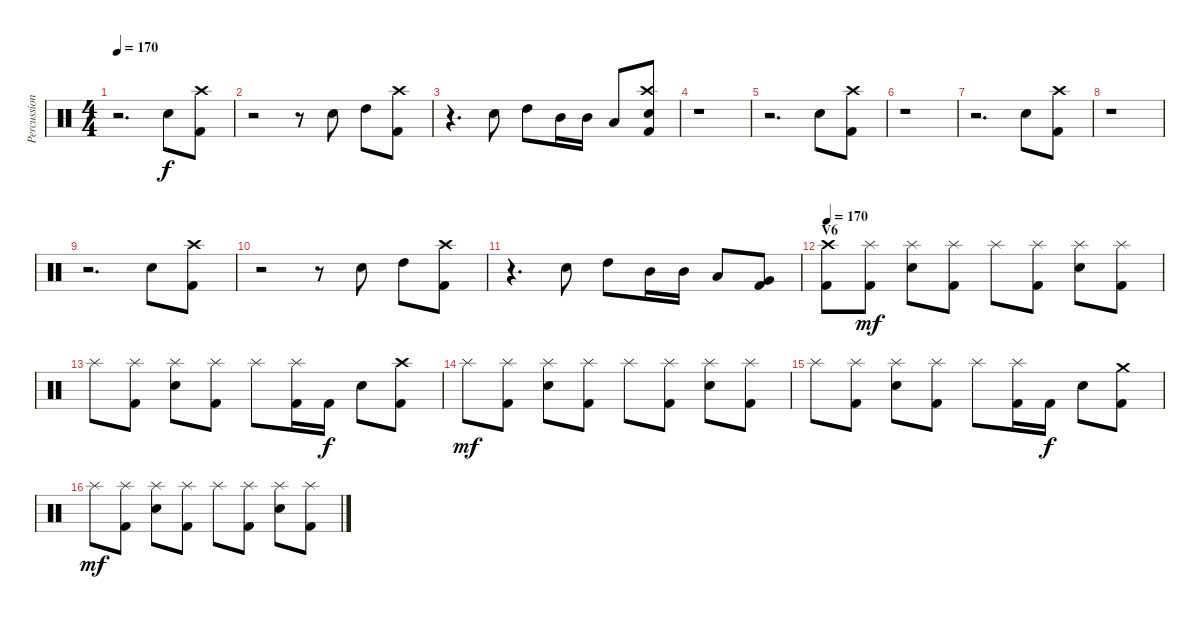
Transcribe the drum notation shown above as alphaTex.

\track ("Percussion" "Percussion") {instrument percussion}
\staff {score}
\articulation defaults
\ts (4 4)
\tempo 170
\clef neutral
\ks c
r.2{d dy f} "Electric Snare (hit)".8 ("Crash high (hit)" "Kick (hit) 2").8 |
r.2 r.8 "Electric Snare (hit)".8 "High Tom (hit)".8 ("Crash high (hit)" "Kick (hit) 2").8 |
r.4{d} "Electric Snare (hit)".8 "High Tom (hit)".8 "Mid Tom (hit)".16 "Mid Tom (hit)".16 "Low Tom (hit)".8 ("Crash high (hit)" "Electric Snare (hit)" "Kick (hit) 2").8 |
\section ("" "")
r.1 |
r.2{d} "Electric Snare (hit)".8 ("Crash high (hit)" "Kick (hit) 2").8 |
r.1 |
r.2{d} "Electric Snare (hit)".8 ("Crash high (hit)" "Kick (hit) 2").8 |
r.1 |
r.2{d} "Electric Snare (hit)".8 ("Crash high (hit)" "Kick (hit) 2").8 |
r.2 r.8 "Electric Snare (hit)".8 "High Tom (hit)".8 ("Crash high (hit)" "Kick (hit) 2").8 |
r.4{d} "Electric Snare (hit)".8 "High Tom (hit)".8 "Mid Tom (hit)".16 "Mid Tom (hit)".16 "Low Tom (hit)".8 ("Very Low Tom (hit)" "Kick (hit) 2").8 |
\section ("" "V6")
\tempo 170
("Crash high (hit)" "Kick (hit) 2").8 ("Splash (hit)" "Kick (hit) 2").8{dy mf} ("Splash (hit)" "Electric Snare (hit)").8 ("Splash (hit)" "Kick (hit) 2").8 "Splash (hit)".8 ("Splash (hit)" "Kick (hit) 2").8 ("Splash (hit)" "Electric Snare (hit)").8 ("Splash (hit)" "Kick (hit) 2").8 |
"Splash (hit)".8 ("Splash (hit)" "Kick (hit) 2").8 ("Splash (hit)" "Electric Snare (hit)").8 ("Splash (hit)" "Kick (hit) 2").8 "Splash (hit)".8 ("Splash (hit)" "Kick (hit) 2").16 "Kick (hit) 2".16{dy f} "Electric Snare (hit)".8 ("Crash high (hit)" "Kick (hit) 2").8 |
"Splash (hit)".8{dy mf} ("Splash (hit)" "Kick (hit) 2").8 ("Splash (hit)" "Electric Snare (hit)").8 ("Splash (hit)" "Kick (hit) 2").8 "Splash (hit)".8 ("Splash (hit)" "Kick (hit) 2").8 ("Splash (hit)" "Electric Snare (hit)").8 ("Splash (hit)" "Kick (hit) 2").8 |
"Splash (hit)".8 ("Splash (hit)" "Kick (hit) 2").8 ("Splash (hit)" "Electric Snare (hit)").8 ("Splash (hit)" "Kick (hit) 2").8 "Splash (hit)".8 ("Splash (hit)" "Kick (hit) 2").16 "Kick (hit) 2".16{dy f} "Electric Snare (hit)".8 ("Crash medium (hit)" "Kick (hit) 2").8 |
"Splash (hit)".8{dy mf} ("Splash (hit)" "Kick (hit) 2").8 ("Splash (hit)" "Electric Snare (hit)").8 ("Splash (hit)" "Kick (hit) 2").8 "Splash (hit)".8 ("Splash (hit)" "Kick (hit) 2").8 ("Splash (hit)" "Electric Snare (hit)").8 ("Splash (hit)" "Kick (hit) 2").8
